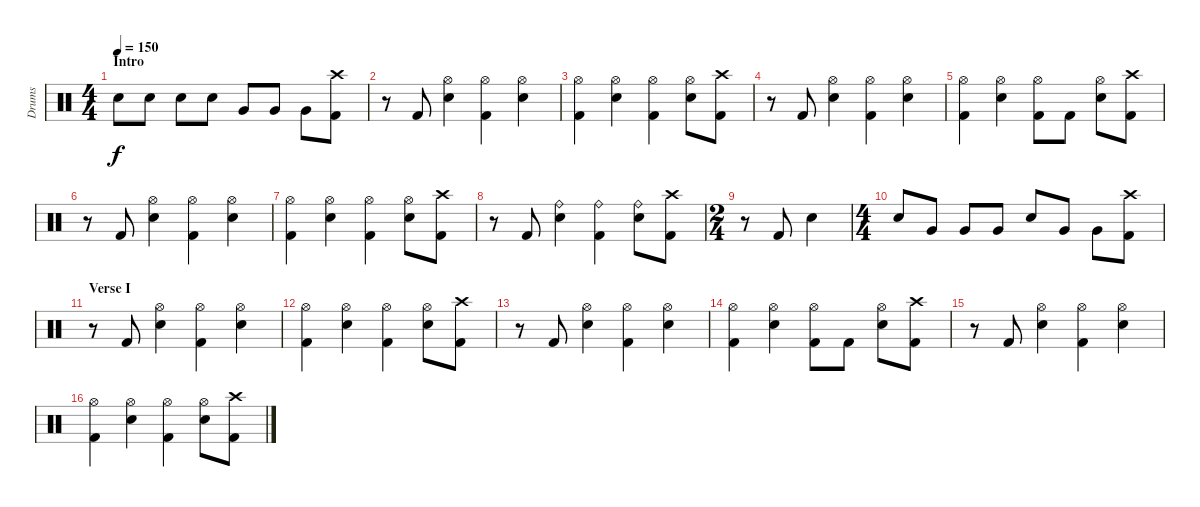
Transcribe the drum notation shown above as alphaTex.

\track ("Drums" "Drums") {instrument percussion}
\staff {score}
\articulation defaults
\ts (4 4)
\section ("" "Intro")
\tempo 150
\clef neutral
\ks c "Electric Snare (hit)".8{dy f} "Electric Snare (hit)".8 "Electric Snare (hit)".8 "Electric Snare (hit)".8 "Very Low Tom (hit)".8 "Very Low Tom (hit)".8 "Very Low Tom (hit)".8
("Kick (hit) 2" "Crash high (hit)").8 |
r.8 "Kick (hit) 2".8 ("Hi-Hat (open)" "Electric Snare (hit)").4 ("Hi-Hat (open)" "Kick (hit) 2").4 ("Hi-Hat (open)" "Electric Snare (hit)").4 |
("Hi-Hat (open)" "Kick (hit) 2").4 ("Hi-Hat (open)" "Electric Snare (hit)").4 ("Hi-Hat (open)" "Kick (hit) 2").4 ("Hi-Hat (open)" "Electric Snare (hit)").8 ("Crash high (hit)" "Kick (hit) 2").8 |
r.8 "Kick (hit) 2".8 ("Hi-Hat (open)" "Electric Snare (hit)").4 ("Hi-Hat (open)" "Kick (hit) 2").4 ("Hi-Hat (open)" "Electric Snare (hit)").4 |
("Hi-Hat (open)" "Kick (hit) 2").4 ("Hi-Hat (open)" "Electric Snare (hit)").4 ("Hi-Hat (open)" "Kick (hit) 2").8 "Kick (hit) 2".8 ("Hi-Hat (open)" "Electric Snare (hit)").8 ("Crash high (hit)" "Kick (hit) 2").8 |
r.8 "Kick (hit) 2".8 ("Hi-Hat (open)" "Electric Snare (hit)").4 ("Hi-Hat (open)" "Kick (hit) 2").4 ("Hi-Hat (open)" "Electric Snare (hit)").4 |
("Hi-Hat (open)" "Kick (hit) 2").4 ("Hi-Hat (open)" "Electric Snare (hit)").4 ("Hi-Hat (open)" "Kick (hit) 2").4 ("Hi-Hat (open)" "Electric Snare (hit)").8 ("Crash high (hit)" "Kick (hit) 2").8 |
r.8 "Kick (hit) 2".8 ("Ride (bell)" "Electric Snare (hit)").4 ("Ride (bell)" "Kick (hit) 2").4 ("Ride (bell)" "Electric Snare (hit)").8 ("Crash high (hit)" "Kick (hit) 2").8 |
\ts (2 4)
r.8 "Kick (hit) 2".8 "Electric Snare (hit)".4 |
\ts (4 4)
"Electric Snare (hit)".8 "Very Low Tom (hit)".8 "Very Low Tom (hit)".8 "Very Low Tom (hit)".8 "Electric Snare (hit)".8 "Very Low Tom (hit)".8 "Very Low Tom (hit)".8 ("Crash high (hit)" "Kick (hit) 2").8 |
\section ("" "Verse I")
r.8 "Kick (hit) 2".8 ("Hi-Hat (open)" "Electric Snare (hit)").4 ("Hi-Hat (open)" "Kick (hit) 2").4 ("Hi-Hat (open)" "Electric Snare (hit)").4 |
("Hi-Hat (open)" "Kick (hit) 2").4 ("Hi-Hat (open)" "Electric Snare (hit)").4 ("Hi-Hat (open)" "Kick (hit) 2").4 ("Hi-Hat (open)" "Electric Snare (hit)").8 ("Crash high (hit)" "Kick (hit) 2").8 |
r.8 "Kick (hit) 2".8 ("Hi-Hat (open)" "Electric Snare (hit)").4 ("Hi-Hat (open)" "Kick (hit) 2").4 ("Hi-Hat (open)" "Electric Snare (hit)").4 |
("Hi-Hat (open)" "Kick (hit) 2").4 ("Hi-Hat (open)" "Electric Snare (hit)").4 ("Hi-Hat (open)" "Kick (hit) 2").8 "Kick (hit) 2".8 ("Hi-Hat (open)" "Electric Snare (hit)").8 ("Crash high (hit)" "Kick (hit) 2").8 |
r.8 "Kick (hit) 2".8 ("Hi-Hat (open)" "Electric Snare (hit)").4 ("Hi-Hat (open)" "Kick (hit) 2").4 ("Hi-Hat (open)" "Electric Snare (hit)").4 |
("Hi-Hat (open)" "Kick (hit) 2").4 ("Hi-Hat (open)" "Electric Snare (hit)").4 ("Hi-Hat (open)" "Kick (hit) 2").4 ("Hi-Hat (open)" "Electric Snare (hit)").8 ("Crash high (hit)" "Kick (hit) 2").8
